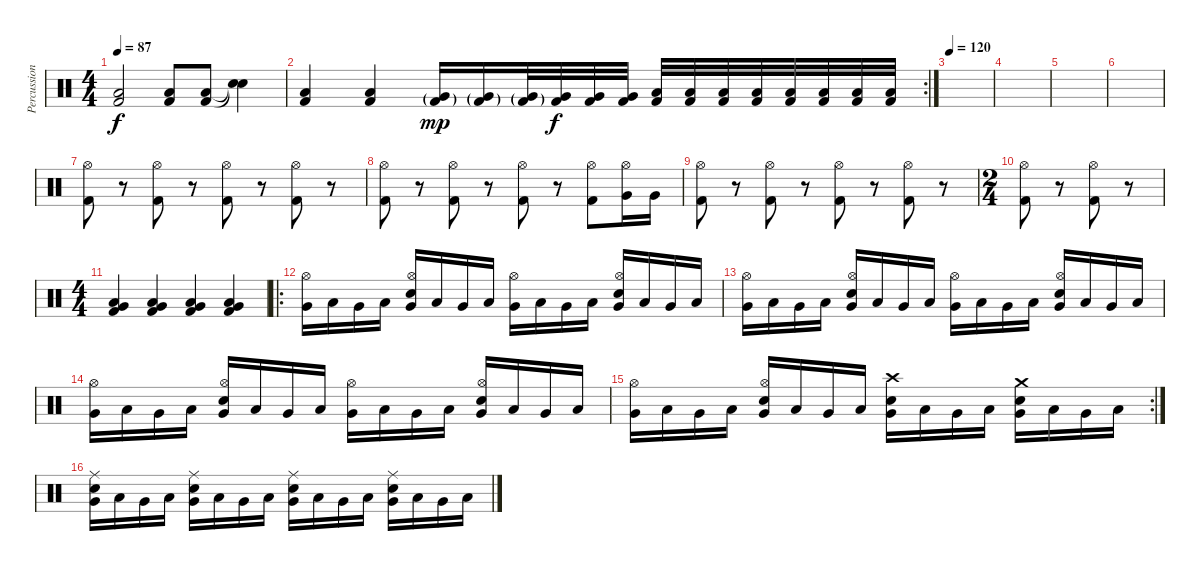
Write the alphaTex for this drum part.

\track ("Percussion" "Percussion") {instrument percussion}
\staff {score}
\articulation defaults
\ts (4 4)
\tempo 87
\clef neutral
\ks c
("Low Floor Tom (hit)" "Kick (hit) 2").2{dy f} ("Low Floor Tom (hit)" "Kick (hit) 2").8 ("Low Floor Tom (hit)" "Kick (hit) 2").8 ("Snare (hit)"{t} "Snare (hit)"{t}).4 |
\rc 2
("Low Floor Tom (hit)" "Kick (hit) 2").4 ("Low Floor Tom (hit)" "Kick (hit) 2").4 ("Very Low Tom (hit)"{g} "Kick (hit) 2"{g}).16{dy mp} ("Very Low Tom (hit)"{g} "Kick (hit) 2"{g}).16 ("Very Low Tom (hit)"{g} "Kick (hit) 2"{g}).32 ("Very Low Tom (hit)" "Kick (hit) 2").32{dy f} ("Very Low Tom (hit)" "Kick (hit) 2").32 ("Very Low Tom (hit)" "Kick (hit) 2").32 ("Low Floor Tom (hit)" "Kick (hit) 2").32 ("Low Floor Tom (hit)" "Kick (hit) 2").32 ("Low Floor Tom (hit)" "Kick (hit) 2").32 ("Low Floor Tom (hit)" "Kick (hit) 2").32 ("Low Floor Tom (hit)" "Kick (hit) 2").32 ("Low Floor Tom (hit)" "Kick (hit) 2").32 ("Low Floor Tom (hit)" "Kick (hit) 2").32 ("Low Floor Tom (hit)" "Kick (hit) 2").32 |
\tempo 120
|
|
|
|
("Hi-Hat (open)" "Kick (hit) 2").8 r.8 ("Hi-Hat (open)" "Kick (hit) 2").8 r.8 ("Hi-Hat (open)" "Kick (hit) 2").8 r.8 ("Hi-Hat (open)" "Kick (hit) 2").8 r.8 |
("Hi-Hat (open)" "Kick (hit) 2").8 r.8 ("Hi-Hat (open)" "Kick (hit) 2").8 r.8 ("Hi-Hat (open)" "Kick (hit) 2").8 r.8 ("Hi-Hat (open)" "Kick (hit) 2").8 ("Hi-Hat (open)" "Very Low Tom (hit)").16 "Very Low Tom (hit)".16 |
("Hi-Hat (open)" "Kick (hit) 2").8 r.8 ("Hi-Hat (open)" "Kick (hit) 2").8 r.8 ("Hi-Hat (open)" "Kick (hit) 2").8 r.8 ("Hi-Hat (open)" "Kick (hit) 2").8 r.8 |
\ts (2 4)
("Hi-Hat (open)" "Kick (hit) 2").8 r.8 ("Hi-Hat (open)" "Kick (hit) 2").8 r.8 |
\ts (4 4)
("Kick (hit) 2" "Very Low Tom (hit)" "Low Tom (hit)").4 ("Kick (hit) 2" "Very Low Tom (hit)" "Low Tom (hit)").4 ("Kick (hit) 2" "Very Low Tom (hit)" "Low Tom (hit)").4 ("Kick (hit) 2" "Very Low Tom (hit)" "Low Tom (hit)").4 |
\ro
("Hi-Hat (open)" "Very Low Tom (hit)").16 "Low Floor Tom (hit)".16 "Very Low Tom (hit)".16 "Low Floor Tom (hit)".16 ("Hi-Hat (open)" "Electric Snare (hit)" "Very Low Tom (hit)").16 "Low Floor Tom (hit)".16 "Very Low Tom (hit)".16 "Low Floor Tom (hit)".16 ("Hi-Hat (open)" "Very Low Tom (hit)").16 "Low Floor Tom (hit)".16 "Very Low Tom (hit)".16 "Low Floor Tom (hit)".16 ("Hi-Hat (open)" "Electric Snare (hit)" "Very Low Tom (hit)").16 "Low Floor Tom (hit)".16 "Very Low Tom (hit)".16 "Low Floor Tom (hit)".16 |
("Hi-Hat (open)" "Very Low Tom (hit)").16 "Low Floor Tom (hit)".16 "Very Low Tom (hit)".16 "Low Floor Tom (hit)".16 ("Hi-Hat (open)" "Electric Snare (hit)" "Very Low Tom (hit)").16 "Low Floor Tom (hit)".16 "Very Low Tom (hit)".16 "Low Floor Tom (hit)".16 ("Hi-Hat (open)" "Very Low Tom (hit)").16 "Low Floor Tom (hit)".16 "Very Low Tom (hit)".16 "Low Floor Tom (hit)".16 ("Hi-Hat (open)" "Electric Snare (hit)" "Very Low Tom (hit)").16 "Low Floor Tom (hit)".16 "Very Low Tom (hit)".16 "Low Floor Tom (hit)".16 |
("Hi-Hat (open)" "Very Low Tom (hit)").16 "Low Floor Tom (hit)".16 "Very Low Tom (hit)".16 "Low Floor Tom (hit)".16 ("Hi-Hat (open)" "Electric Snare (hit)" "Very Low Tom (hit)").16 "Low Floor Tom (hit)".16 "Very Low Tom (hit)".16 "Low Floor Tom (hit)".16 ("Hi-Hat (open)" "Very Low Tom (hit)").16 "Low Floor Tom (hit)".16 "Very Low Tom (hit)".16 "Low Floor Tom (hit)".16 ("Hi-Hat (open)" "Electric Snare (hit)" "Very Low Tom (hit)").16 "Low Floor Tom (hit)".16 "Very Low Tom (hit)".16 "Low Floor Tom (hit)".16 |
\rc 2
("Hi-Hat (open)" "Very Low Tom (hit)").16 "Low Floor Tom (hit)".16 "Very Low Tom (hit)".16 "Low Floor Tom (hit)".16 ("Hi-Hat (open)" "Electric Snare (hit)" "Very Low Tom (hit)").16 "Low Floor Tom (hit)".16 "Very Low Tom (hit)".16 "Low Floor Tom (hit)".16 ("Crash high (hit)" "Electric Snare (hit)" "Very Low Tom (hit)").16 "Low Floor Tom (hit)".16 "Very Low Tom (hit)".16 "Low Floor Tom (hit)".16 ("Crash medium (hit)" "Electric Snare (hit)" "Very Low Tom (hit)").16 "Low Floor Tom (hit)".16 "Very Low Tom (hit)".16 "Low Floor Tom (hit)".16 |
("Ride (middle)" "Electric Snare (hit)" "Very Low Tom (hit)").16 "Low Floor Tom (hit)".16 "Very Low Tom (hit)".16 "Low Floor Tom (hit)".16 ("Ride (middle)" "Electric Snare (hit)" "Very Low Tom (hit)").16 "Low Floor Tom (hit)".16 "Very Low Tom (hit)".16 "Low Floor Tom (hit)".16 ("Ride (middle)" "Electric Snare (hit)" "Very Low Tom (hit)").16 "Low Floor Tom (hit)".16 "Very Low Tom (hit)".16 "Low Floor Tom (hit)".16 ("Ride (middle)" "Electric Snare (hit)" "Very Low Tom (hit)").16 "Low Floor Tom (hit)".16 "Very Low Tom (hit)".16 "Low Floor Tom (hit)".16
